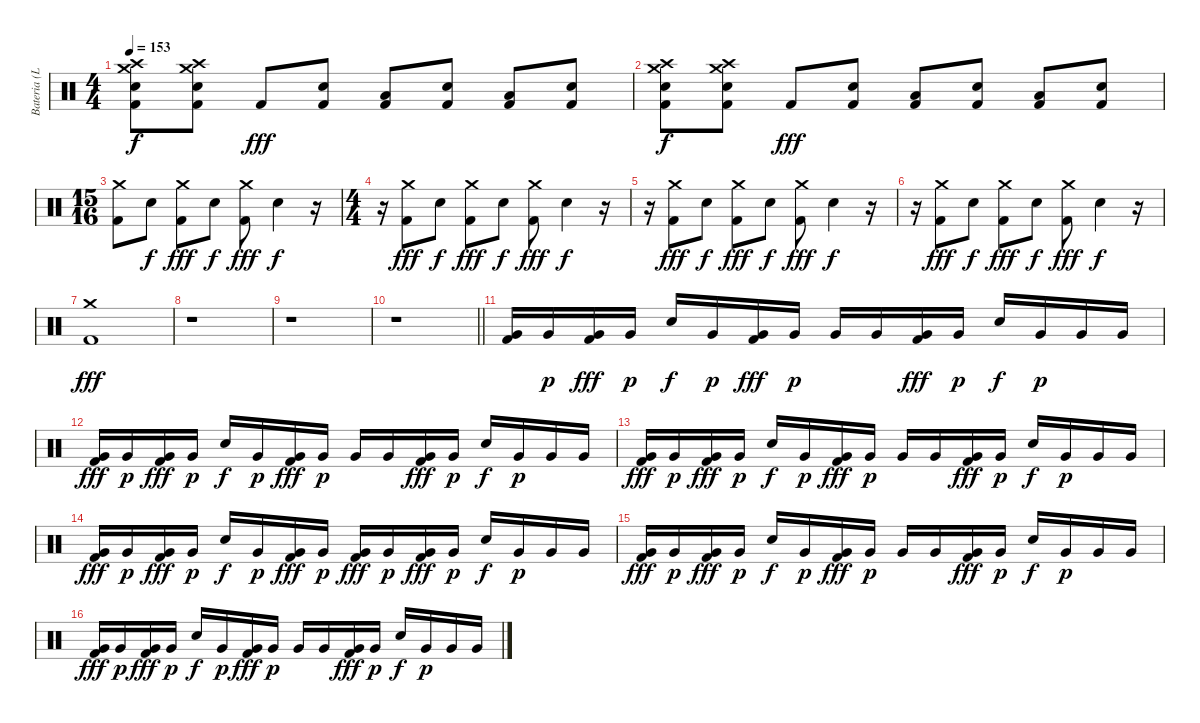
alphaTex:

\track ("Bateria (Lars)" "Bateria (L") {instrument percussion}
\staff {score}
\articulation defaults
\ts (4 4)
\tempo 153
\clef neutral
\ks c
("Crash medium (hit)" "Crash high (hit)" "Electric Snare (hit)" "Kick (hit) 2").8{dy f} ("Crash medium (hit)" "Crash high (hit)" "Electric Snare (hit)" "Kick (hit) 2").8 "Kick (hit) 2".8{dy fff} ("Electric Snare (hit)" "Kick (hit) 2").8 ("Low Floor Tom (hit)" "Kick (hit) 2").8 ("Electric Snare (hit)" "Kick (hit) 2").8 ("Low Floor Tom (hit)" "Kick (hit) 2").8 ("Electric Snare (hit)" "Kick (hit) 2").8 |
("Crash medium (hit)" "Crash high (hit)" "Electric Snare (hit)" "Kick (hit) 2").8{dy f} ("Crash medium (hit)" "Crash high (hit)" "Electric Snare (hit)" "Kick (hit) 2").8 "Kick (hit) 2".8{dy fff} ("Electric Snare (hit)" "Kick (hit) 2").8 ("Low Floor Tom (hit)" "Kick (hit) 2").8 ("Electric Snare (hit)" "Kick (hit) 2").8 ("Low Floor Tom (hit)" "Kick (hit) 2").8 ("Electric Snare (hit)" "Kick (hit) 2").8 |
\ts (15 16)
("Crash medium (hit)" "Kick (hit) 2").8 "Electric Snare (hit)".8{dy f} ("Crash medium (hit)" "Kick (hit) 2").8{dy fff} "Electric Snare (hit)".8{dy f} ("Crash medium (hit)" "Kick (hit) 2").8{dy fff} "Electric Snare (hit)".4{dy f} r.16 |
\ts (4 4)
r.16 ("Crash medium (hit)" "Kick (hit) 2").8{dy fff} "Electric Snare (hit)".8{dy f} ("Crash medium (hit)" "Kick (hit) 2").8{dy fff} "Electric Snare (hit)".8{dy f} ("Crash medium (hit)" "Kick (hit) 2").8{dy fff} "Electric Snare (hit)".4{dy f} r.16 |
r.16 ("Crash medium (hit)" "Kick (hit) 2").8{dy fff} "Electric Snare (hit)".8{dy f} ("Crash medium (hit)" "Kick (hit) 2").8{dy fff} "Electric Snare (hit)".8{dy f} ("Crash medium (hit)" "Kick (hit) 2").8{dy fff} "Electric Snare (hit)".4{dy f} r.16 |
r.16 ("Crash medium (hit)" "Kick (hit) 2").8{dy fff} "Electric Snare (hit)".8{dy f} ("Crash medium (hit)" "Kick (hit) 2").8{dy fff} "Electric Snare (hit)".8{dy f} ("Crash medium (hit)" "Kick (hit) 2").8{dy fff} "Electric Snare (hit)".4{dy f} r.16 |
("Crash medium (hit)" "Kick (hit) 2").1{dy fff} |
r.1 |
r.1 |
\barLineRight lightlight
r.1 |
("Very Low Tom (hit)" "Kick (hit) 2").16 "Very Low Tom (hit)".16{dy p} ("Very Low Tom (hit)" "Kick (hit) 2").16{dy fff} "Very Low Tom (hit)".16{dy p} "Electric Snare (hit)".16{dy f} "Very Low Tom (hit)".16{dy p} ("Very Low Tom (hit)" "Kick (hit) 2").16{dy fff} "Very Low Tom (hit)".16{dy p} "Very Low Tom (hit)".16 "Very Low Tom (hit)".16 ("Very Low Tom (hit)" "Kick (hit) 2").16{dy fff} "Very Low Tom (hit)".16{dy p} "Electric Snare (hit)".16{dy f} "Very Low Tom (hit)".16{dy p} "Very Low Tom (hit)".16 "Very Low Tom (hit)".16 |
("Very Low Tom (hit)" "Kick (hit) 2").16{dy fff} "Very Low Tom (hit)".16{dy p} ("Very Low Tom (hit)" "Kick (hit) 2").16{dy fff} "Very Low Tom (hit)".16{dy p} "Electric Snare (hit)".16{dy f} "Very Low Tom (hit)".16{dy p} ("Very Low Tom (hit)" "Kick (hit) 2").16{dy fff} "Very Low Tom (hit)".16{dy p} "Very Low Tom (hit)".16 "Very Low Tom (hit)".16 ("Very Low Tom (hit)" "Kick (hit) 2").16{dy fff} "Very Low Tom (hit)".16{dy p} "Electric Snare (hit)".16{dy f} "Very Low Tom (hit)".16{dy p} "Very Low Tom (hit)".16 "Very Low Tom (hit)".16 |
("Very Low Tom (hit)" "Kick (hit) 2").16{dy fff} "Very Low Tom (hit)".16{dy p} ("Very Low Tom (hit)" "Kick (hit) 2").16{dy fff} "Very Low Tom (hit)".16{dy p} "Electric Snare (hit)".16{dy f} "Very Low Tom (hit)".16{dy p} ("Very Low Tom (hit)" "Kick (hit) 2").16{dy fff} "Very Low Tom (hit)".16{dy p} "Very Low Tom (hit)".16 "Very Low Tom (hit)".16 ("Very Low Tom (hit)" "Kick (hit) 2").16{dy fff} "Very Low Tom (hit)".16{dy p} "Electric Snare (hit)".16{dy f} "Very Low Tom (hit)".16{dy p} "Very Low Tom (hit)".16 "Very Low Tom (hit)".16 |
("Very Low Tom (hit)" "Kick (hit) 2").16{dy fff} "Very Low Tom (hit)".16{dy p} ("Very Low Tom (hit)" "Kick (hit) 2").16{dy fff} "Very Low Tom (hit)".16{dy p} "Electric Snare (hit)".16{dy f} "Very Low Tom (hit)".16{dy p} ("Very Low Tom (hit)" "Kick (hit) 2").16{dy fff} "Very Low Tom (hit)".16{dy p} ("Very Low Tom (hit)" "Kick (hit) 2").16{dy fff} "Very Low Tom (hit)".16{dy p} ("Very Low Tom (hit)" "Kick (hit) 2").16{dy fff} "Very Low Tom (hit)".16{dy p} "Electric Snare (hit)".16{dy f} "Very Low Tom (hit)".16{dy p} "Very Low Tom (hit)".16 "Very Low Tom (hit)".16 |
("Very Low Tom (hit)" "Kick (hit) 2").16{dy fff} "Very Low Tom (hit)".16{dy p} ("Very Low Tom (hit)" "Kick (hit) 2").16{dy fff} "Very Low Tom (hit)".16{dy p} "Electric Snare (hit)".16{dy f} "Very Low Tom (hit)".16{dy p} ("Very Low Tom (hit)" "Kick (hit) 2").16{dy fff} "Very Low Tom (hit)".16{dy p} "Very Low Tom (hit)".16 "Very Low Tom (hit)".16 ("Very Low Tom (hit)" "Kick (hit) 2").16{dy fff} "Very Low Tom (hit)".16{dy p} "Electric Snare (hit)".16{dy f} "Very Low Tom (hit)".16{dy p} "Very Low Tom (hit)".16 "Very Low Tom (hit)".16 |
("Very Low Tom (hit)" "Kick (hit) 2").16{dy fff} "Very Low Tom (hit)".16{dy p} ("Very Low Tom (hit)" "Kick (hit) 2").16{dy fff} "Very Low Tom (hit)".16{dy p} "Electric Snare (hit)".16{dy f} "Very Low Tom (hit)".16{dy p} ("Very Low Tom (hit)" "Kick (hit) 2").16{dy fff} "Very Low Tom (hit)".16{dy p} "Very Low Tom (hit)".16 "Very Low Tom (hit)".16 ("Very Low Tom (hit)" "Kick (hit) 2").16{dy fff} "Very Low Tom (hit)".16{dy p} "Electric Snare (hit)".16{dy f} "Very Low Tom (hit)".16{dy p} "Very Low Tom (hit)".16 "Very Low Tom (hit)".16
